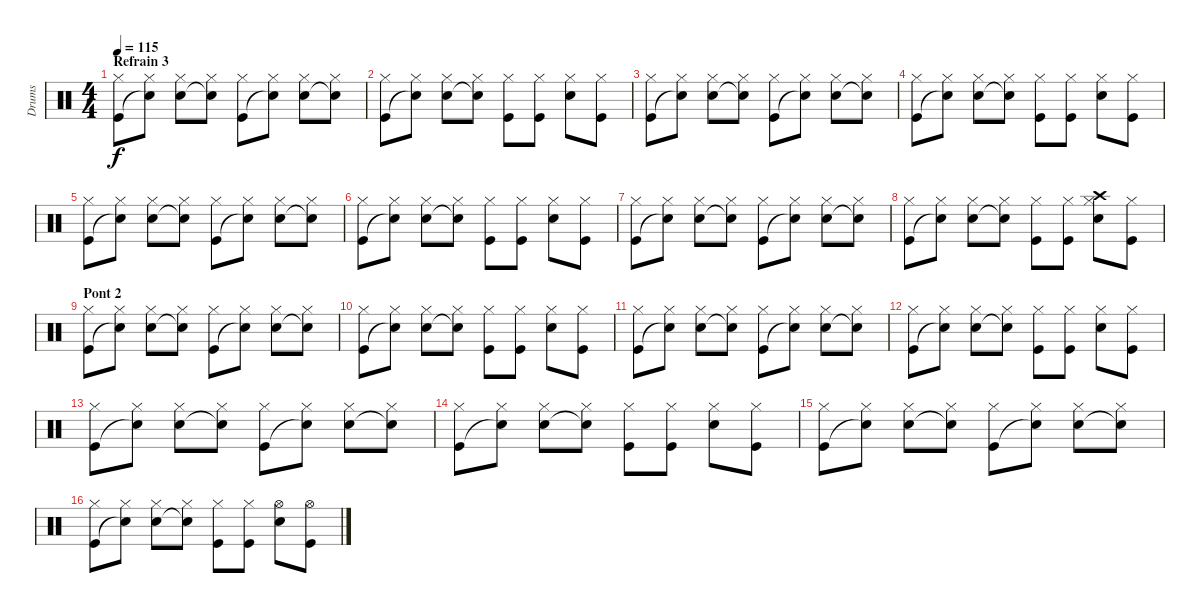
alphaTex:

\track ("Drums" "Drums") {instrument percussion}
\staff {score}
\articulation defaults
\ts (4 4)
\section ("" "Refrain 3")
\tempo 115
\clef neutral
\ks c
("Hi-Hat (closed)" "Kick (hit)").8{dy f} ("Hi-Hat (closed)" "Snare (hit)"{t}).8 ("Hi-Hat (closed)" "Snare (hit) 2").8 ("Hi-Hat (closed)" "Snare (hit)"{t}).8 ("Hi-Hat (closed)" "Kick (hit)").8 ("Hi-Hat (closed)" "Snare (hit)"{t}).8 ("Hi-Hat (closed)" "Snare (hit) 2").8 ("Hi-Hat (closed)" "Snare (hit)"{t}).8 |
("Hi-Hat (closed)" "Kick (hit)").8 ("Hi-Hat (closed)" "Snare (hit)"{t}).8 ("Hi-Hat (closed)" "Snare (hit) 2").8 ("Hi-Hat (closed)" "Snare (hit)"{t}).8 ("Hi-Hat (closed)" "Kick (hit)").8 ("Hi-Hat (closed)" "Kick (hit)").8 ("Hi-Hat (closed)" "Snare (hit) 2").8 ("Hi-Hat (closed)" "Kick (hit)").8 |
("Hi-Hat (closed)" "Kick (hit)").8 ("Hi-Hat (closed)" "Snare (hit)"{t}).8 ("Hi-Hat (closed)" "Snare (hit) 2").8 ("Hi-Hat (closed)" "Snare (hit)"{t}).8 ("Hi-Hat (closed)" "Kick (hit)").8 ("Hi-Hat (closed)" "Snare (hit)"{t}).8 ("Hi-Hat (closed)" "Snare (hit) 2").8 ("Hi-Hat (closed)" "Snare (hit)"{t}).8 |
("Hi-Hat (closed)" "Kick (hit)").8 ("Hi-Hat (closed)" "Snare (hit)"{t}).8 ("Hi-Hat (closed)" "Snare (hit) 2").8 ("Hi-Hat (closed)" "Snare (hit)"{t}).8 ("Hi-Hat (closed)" "Kick (hit)").8 ("Hi-Hat (closed)" "Kick (hit)").8 ("Hi-Hat (closed)" "Snare (hit) 2").8 ("Hi-Hat (closed)" "Kick (hit)").8 |
("Hi-Hat (closed)" "Kick (hit)").8 ("Hi-Hat (closed)" "Snare (hit)"{t}).8 ("Hi-Hat (closed)" "Snare (hit) 2").8 ("Hi-Hat (closed)" "Snare (hit)"{t}).8 ("Hi-Hat (closed)" "Kick (hit)").8 ("Hi-Hat (closed)" "Snare (hit)"{t}).8 ("Hi-Hat (closed)" "Snare (hit) 2").8 ("Hi-Hat (closed)" "Snare (hit)"{t}).8 |
("Hi-Hat (closed)" "Kick (hit)").8 ("Hi-Hat (closed)" "Snare (hit)"{t}).8 ("Hi-Hat (closed)" "Snare (hit) 2").8 ("Hi-Hat (closed)" "Snare (hit)"{t}).8 ("Hi-Hat (closed)" "Kick (hit)").8 ("Hi-Hat (closed)" "Kick (hit)").8 ("Hi-Hat (closed)" "Snare (hit) 2").8 ("Hi-Hat (closed)" "Kick (hit)").8 |
("Hi-Hat (closed)" "Kick (hit)").8 ("Hi-Hat (closed)" "Snare (hit)"{t}).8 ("Hi-Hat (closed)" "Snare (hit) 2").8 ("Hi-Hat (closed)" "Snare (hit)"{t}).8 ("Hi-Hat (closed)" "Kick (hit)").8 ("Hi-Hat (closed)" "Snare (hit)"{t}).8 ("Hi-Hat (closed)" "Snare (hit) 2").8 ("Hi-Hat (closed)" "Snare (hit)"{t}).8 |
("Hi-Hat (closed)" "Kick (hit)").8 ("Hi-Hat (closed)" "Snare (hit)"{t}).8 ("Hi-Hat (closed)" "Snare (hit) 2").8 ("Hi-Hat (closed)" "Snare (hit)"{t}).8 ("Hi-Hat (closed)" "Kick (hit)").8 ("Hi-Hat (closed)" "Kick (hit)").8 ("Hi-Hat (closed)" "Crash high (hit)" "Snare (hit) 2").8 ("Hi-Hat (closed)" "Kick (hit)").8 |
\section ("" "Pont 2")
("Hi-Hat (closed)" "Kick (hit)").8 ("Hi-Hat (closed)" "Snare (hit)"{t}).8 ("Hi-Hat (closed)" "Snare (hit) 2").8 ("Hi-Hat (closed)" "Snare (hit)"{t}).8 ("Hi-Hat (closed)" "Kick (hit)").8 ("Hi-Hat (closed)" "Snare (hit)"{t}).8 ("Hi-Hat (closed)" "Snare (hit) 2").8 ("Hi-Hat (closed)" "Snare (hit)"{t}).8 |
("Hi-Hat (closed)" "Kick (hit)").8 ("Hi-Hat (closed)" "Snare (hit)"{t}).8 ("Hi-Hat (closed)" "Snare (hit) 2").8 ("Hi-Hat (closed)" "Snare (hit)"{t}).8 ("Hi-Hat (closed)" "Kick (hit)").8 ("Hi-Hat (closed)" "Kick (hit)").8 ("Hi-Hat (closed)" "Snare (hit) 2").8 ("Hi-Hat (closed)" "Kick (hit)").8 |
("Hi-Hat (closed)" "Kick (hit)").8 ("Hi-Hat (closed)" "Snare (hit)"{t}).8 ("Hi-Hat (closed)" "Snare (hit) 2").8 ("Hi-Hat (closed)" "Snare (hit)"{t}).8 ("Hi-Hat (closed)" "Kick (hit)").8 ("Hi-Hat (closed)" "Snare (hit)"{t}).8 ("Hi-Hat (closed)" "Snare (hit) 2").8 ("Hi-Hat (closed)" "Snare (hit)"{t}).8 |
("Hi-Hat (closed)" "Kick (hit)").8 ("Hi-Hat (closed)" "Snare (hit)"{t}).8 ("Hi-Hat (closed)" "Snare (hit) 2").8 ("Hi-Hat (closed)" "Snare (hit)"{t}).8 ("Hi-Hat (closed)" "Kick (hit)").8 ("Hi-Hat (closed)" "Kick (hit)").8 ("Hi-Hat (closed)" "Snare (hit) 2").8 ("Hi-Hat (closed)" "Kick (hit)").8 |
("Hi-Hat (closed)" "Kick (hit)").8 ("Hi-Hat (closed)" "Snare (hit)"{t}).8 ("Hi-Hat (closed)" "Snare (hit) 2").8 ("Hi-Hat (closed)" "Snare (hit)"{t}).8 ("Hi-Hat (closed)" "Kick (hit)").8 ("Hi-Hat (closed)" "Snare (hit)"{t}).8 ("Hi-Hat (closed)" "Snare (hit) 2").8 ("Hi-Hat (closed)" "Snare (hit)"{t}).8 |
("Hi-Hat (closed)" "Kick (hit)").8 ("Hi-Hat (closed)" "Snare (hit)"{t}).8 ("Hi-Hat (closed)" "Snare (hit) 2").8 ("Hi-Hat (closed)" "Snare (hit)"{t}).8 ("Hi-Hat (closed)" "Kick (hit)").8 ("Hi-Hat (closed)" "Kick (hit)").8 ("Hi-Hat (closed)" "Snare (hit) 2").8 ("Hi-Hat (closed)" "Kick (hit)").8 |
("Hi-Hat (closed)" "Kick (hit)").8 ("Hi-Hat (closed)" "Snare (hit)"{t}).8 ("Hi-Hat (closed)" "Snare (hit) 2").8 ("Hi-Hat (closed)" "Snare (hit)"{t}).8 ("Hi-Hat (closed)" "Kick (hit)").8 ("Hi-Hat (closed)" "Snare (hit)"{t}).8 ("Hi-Hat (closed)" "Snare (hit) 2").8 ("Hi-Hat (closed)" "Snare (hit)"{t}).8 |
("Hi-Hat (closed)" "Kick (hit)").8 ("Hi-Hat (closed)" "Snare (hit)"{t}).8 ("Hi-Hat (closed)" "Snare (hit) 2").8 ("Hi-Hat (closed)" "Snare (hit)"{t}).8 ("Hi-Hat (closed)" "Kick (hit)").8 ("Hi-Hat (closed)" "Kick (hit)").8 ("Hi-Hat (open)" "Snare (hit) 2").8 ("Hi-Hat (open)" "Kick (hit)").8
